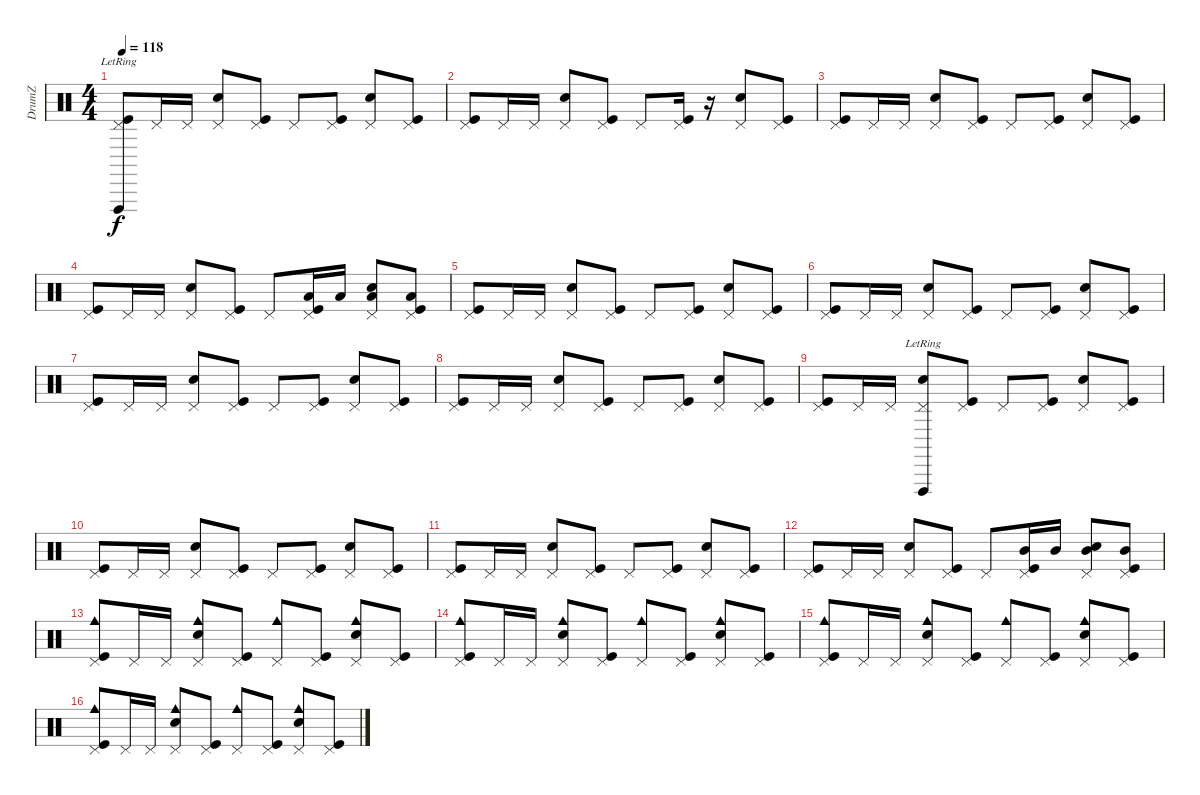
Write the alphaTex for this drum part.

\track ("DrumZ" "DrumZ") {instrument percussion}
\staff {score}
\articulation defaults
\ts (4 4)
\tempo 118
\clef neutral
\ks c
("Vibraslap (hit)"{lr} "Pedal Hi-Hat (hit)" "Kick (hit)").8{dy f} "Pedal Hi-Hat (hit)".16 "Pedal Hi-Hat (hit)".16 ("Pedal Hi-Hat (hit)" "Snare (hit) 2").8 ("Pedal Hi-Hat (hit)" "Kick (hit)").8 "Pedal Hi-Hat (hit)".8 ("Pedal Hi-Hat (hit)" "Kick (hit)").8 ("Pedal Hi-Hat (hit)" "Snare (hit) 2").8 ("Pedal Hi-Hat (hit)" "Kick (hit)").8 |
("Pedal Hi-Hat (hit)" "Kick (hit)").8 "Pedal Hi-Hat (hit)".16 "Pedal Hi-Hat (hit)".16 ("Pedal Hi-Hat (hit)" "Snare (hit) 2").8 ("Pedal Hi-Hat (hit)" "Kick (hit)").8 "Pedal Hi-Hat (hit)".8 ("Pedal Hi-Hat (hit)" "Kick (hit)").16 r.16 ("Pedal Hi-Hat (hit)" "Snare (hit) 2").8 ("Pedal Hi-Hat (hit)" "Kick (hit)").8 |
("Pedal Hi-Hat (hit)" "Kick (hit)").8 "Pedal Hi-Hat (hit)".16 "Pedal Hi-Hat (hit)".16 ("Pedal Hi-Hat (hit)" "Snare (hit) 2").8 ("Pedal Hi-Hat (hit)" "Kick (hit)").8 "Pedal Hi-Hat (hit)".8 ("Pedal Hi-Hat (hit)" "Kick (hit)").8 ("Pedal Hi-Hat (hit)" "Snare (hit) 2").8 ("Pedal Hi-Hat (hit)" "Kick (hit)").8 |
("Pedal Hi-Hat (hit)" "Kick (hit)").8 "Pedal Hi-Hat (hit)".16 "Pedal Hi-Hat (hit)".16 ("Pedal Hi-Hat (hit)" "Snare (hit) 2").8 ("Pedal Hi-Hat (hit)" "Kick (hit)").8 "Pedal Hi-Hat (hit)".8 ("Low Tom (hit)" "Pedal Hi-Hat (hit)" "Kick (hit)").16 "Low Tom (hit)".16 ("Low Tom (hit)" "Pedal Hi-Hat (hit)" "Snare (hit) 2").8 ("Low Tom (hit)" "Pedal Hi-Hat (hit)" "Kick (hit)").8 |
("Pedal Hi-Hat (hit)" "Kick (hit)").8 "Pedal Hi-Hat (hit)".16 "Pedal Hi-Hat (hit)".16 ("Pedal Hi-Hat (hit)" "Snare (hit) 2").8 ("Pedal Hi-Hat (hit)" "Kick (hit)").8 "Pedal Hi-Hat (hit)".8 ("Pedal Hi-Hat (hit)" "Kick (hit)").8 ("Pedal Hi-Hat (hit)" "Snare (hit) 2").8 ("Pedal Hi-Hat (hit)" "Kick (hit)").8 |
("Pedal Hi-Hat (hit)" "Kick (hit)").8 "Pedal Hi-Hat (hit)".16 "Pedal Hi-Hat (hit)".16 ("Pedal Hi-Hat (hit)" "Snare (hit) 2").8 ("Pedal Hi-Hat (hit)" "Kick (hit)").8 "Pedal Hi-Hat (hit)".8 ("Pedal Hi-Hat (hit)" "Kick (hit)").8 ("Pedal Hi-Hat (hit)" "Snare (hit) 2").8 ("Pedal Hi-Hat (hit)" "Kick (hit)").8 |
("Pedal Hi-Hat (hit)" "Kick (hit)").8 "Pedal Hi-Hat (hit)".16 "Pedal Hi-Hat (hit)".16 ("Pedal Hi-Hat (hit)" "Snare (hit) 2").8 ("Pedal Hi-Hat (hit)" "Kick (hit)").8 "Pedal Hi-Hat (hit)".8 ("Pedal Hi-Hat (hit)" "Kick (hit)").8 ("Pedal Hi-Hat (hit)" "Snare (hit) 2").8 ("Pedal Hi-Hat (hit)" "Kick (hit)").8 |
("Pedal Hi-Hat (hit)" "Kick (hit)").8 "Pedal Hi-Hat (hit)".16 "Pedal Hi-Hat (hit)".16 ("Pedal Hi-Hat (hit)" "Snare (hit) 2").8 ("Pedal Hi-Hat (hit)" "Kick (hit)").8 "Pedal Hi-Hat (hit)".8 ("Pedal Hi-Hat (hit)" "Kick (hit)").8 ("Pedal Hi-Hat (hit)" "Snare (hit) 2").8 ("Pedal Hi-Hat (hit)" "Kick (hit)").8 |
("Pedal Hi-Hat (hit)" "Kick (hit)").8 "Pedal Hi-Hat (hit)".16 "Pedal Hi-Hat (hit)".16 ("Vibraslap (hit)"{lr} "Pedal Hi-Hat (hit)" "Snare (hit) 2").8 ("Pedal Hi-Hat (hit)" "Kick (hit)").8 "Pedal Hi-Hat (hit)".8 ("Pedal Hi-Hat (hit)" "Kick (hit)").8 ("Pedal Hi-Hat (hit)" "Snare (hit) 2").8 ("Pedal Hi-Hat (hit)" "Kick (hit)").8 |
("Pedal Hi-Hat (hit)" "Kick (hit)").8 "Pedal Hi-Hat (hit)".16 "Pedal Hi-Hat (hit)".16 ("Pedal Hi-Hat (hit)" "Snare (hit) 2").8 ("Pedal Hi-Hat (hit)" "Kick (hit)").8 "Pedal Hi-Hat (hit)".8 ("Pedal Hi-Hat (hit)" "Kick (hit)").8 ("Pedal Hi-Hat (hit)" "Snare (hit) 2").8 ("Pedal Hi-Hat (hit)" "Kick (hit)").8 |
("Pedal Hi-Hat (hit)" "Kick (hit)").8 "Pedal Hi-Hat (hit)".16 "Pedal Hi-Hat (hit)".16 ("Pedal Hi-Hat (hit)" "Snare (hit) 2").8 ("Pedal Hi-Hat (hit)" "Kick (hit)").8 "Pedal Hi-Hat (hit)".8 ("Pedal Hi-Hat (hit)" "Kick (hit)").8 ("Pedal Hi-Hat (hit)" "Snare (hit) 2").8 ("Pedal Hi-Hat (hit)" "Kick (hit)").8 |
("Pedal Hi-Hat (hit)" "Kick (hit)").8 "Pedal Hi-Hat (hit)".16 "Pedal Hi-Hat (hit)".16 ("Pedal Hi-Hat (hit)" "Snare (hit) 2").8 ("Pedal Hi-Hat (hit)" "Kick (hit)").8 "Pedal Hi-Hat (hit)".8 ("Mid Tom (hit)" "Pedal Hi-Hat (hit)" "Kick (hit)").16 "Mid Tom (hit)".16 ("Mid Tom (hit)" "Pedal Hi-Hat (hit)" "Snare (hit) 2").8 ("Mid Tom (hit)" "Pedal Hi-Hat (hit)" "Kick (hit)").8 |
("Cowbell medium (hit)" "Pedal Hi-Hat (hit)" "Kick (hit)").8 "Pedal Hi-Hat (hit)".16 "Pedal Hi-Hat (hit)".16 ("Cowbell medium (hit)" "Pedal Hi-Hat (hit)" "Snare (hit) 2").8 ("Pedal Hi-Hat (hit)" "Kick (hit)").8 ("Cowbell medium (hit)" "Pedal Hi-Hat (hit)").8 ("Pedal Hi-Hat (hit)" "Kick (hit)").8 ("Cowbell medium (hit)" "Pedal Hi-Hat (hit)" "Snare (hit) 2").8 ("Pedal Hi-Hat (hit)" "Kick (hit)").8 |
("Cowbell medium (hit)" "Pedal Hi-Hat (hit)" "Kick (hit)").8 "Pedal Hi-Hat (hit)".16 "Pedal Hi-Hat (hit)".16 ("Cowbell medium (hit)" "Pedal Hi-Hat (hit)" "Snare (hit) 2").8 ("Pedal Hi-Hat (hit)" "Kick (hit)").8 ("Cowbell medium (hit)" "Pedal Hi-Hat (hit)").8 ("Pedal Hi-Hat (hit)" "Kick (hit)").8 ("Cowbell medium (hit)" "Pedal Hi-Hat (hit)" "Snare (hit) 2").8 ("Pedal Hi-Hat (hit)" "Kick (hit)").8 |
("Cowbell medium (hit)" "Pedal Hi-Hat (hit)" "Kick (hit)").8 "Pedal Hi-Hat (hit)".16 "Pedal Hi-Hat (hit)".16 ("Cowbell medium (hit)" "Pedal Hi-Hat (hit)" "Snare (hit) 2").8 ("Pedal Hi-Hat (hit)" "Kick (hit)").8 ("Cowbell medium (hit)" "Pedal Hi-Hat (hit)").8 ("Pedal Hi-Hat (hit)" "Kick (hit)").8 ("Cowbell medium (hit)" "Pedal Hi-Hat (hit)" "Snare (hit) 2").8 ("Pedal Hi-Hat (hit)" "Kick (hit)").8 |
("Cowbell medium (hit)" "Pedal Hi-Hat (hit)" "Kick (hit)").8 "Pedal Hi-Hat (hit)".16 "Pedal Hi-Hat (hit)".16 ("Cowbell medium (hit)" "Pedal Hi-Hat (hit)" "Snare (hit) 2").8 ("Pedal Hi-Hat (hit)" "Kick (hit)").8 ("Cowbell medium (hit)" "Pedal Hi-Hat (hit)").8 ("Pedal Hi-Hat (hit)" "Kick (hit)").8 ("Cowbell medium (hit)" "Pedal Hi-Hat (hit)" "Snare (hit) 2").8 ("Pedal Hi-Hat (hit)" "Kick (hit)").8
